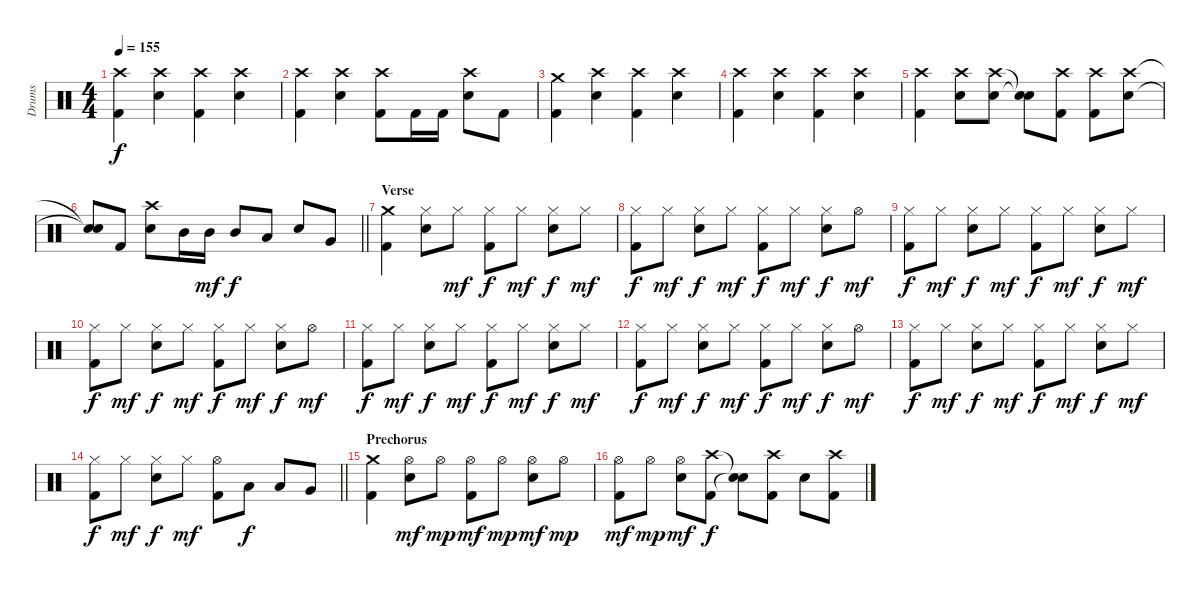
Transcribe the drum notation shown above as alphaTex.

\track ("Drums" "Drums") {instrument percussion}
\staff {score}
\articulation defaults
\ts (4 4)
\tempo 155
\clef neutral
\ks c
("Kick (hit) 2" "Crash high (hit)").4{dy f} ("Crash high (hit)" "Electric Snare (hit)").4 ("Kick (hit) 2" "Crash high (hit)").4 ("Crash high (hit)" "Electric Snare (hit)").4 |
("Kick (hit) 2" "Crash high (hit)").4 ("Crash high (hit)" "Electric Snare (hit)").4 ("Kick (hit) 2" "Crash high (hit)").8 "Kick (hit) 2".16 "Kick (hit) 2".16 ("Crash high (hit)" "Electric Snare (hit)").8 "Kick (hit) 2".8 |
("Kick (hit) 2" "Crash medium (hit)").4 ("Crash high (hit)" "Electric Snare (hit)").4 ("Kick (hit) 2" "Crash high (hit)").4 ("Crash high (hit)" "Electric Snare (hit)").4 |
("Kick (hit) 2" "Crash high (hit)").4 ("Crash high (hit)" "Electric Snare (hit)").4 ("Kick (hit) 2" "Crash high (hit)").4 ("Crash high (hit)" "Electric Snare (hit)").4 |
("Kick (hit) 2" "Crash high (hit)").4 ("Crash high (hit)" "Electric Snare (hit)").8 ("Crash high (hit)" "Electric Snare (hit)").8 ("Snare (hit)"{t} "Snare (hit)"{t}).8 ("Kick (hit) 2" "Crash high (hit)").8 ("Kick (hit) 2" "Crash high (hit)").8 ("Crash high (hit)" "Electric Snare (hit)").8 |
\barLineRight lightlight
("Snare (hit)"{t} "Snare (hit)"{t}).8 "Kick (hit) 2".8 ("Crash high (hit)" "Electric Snare (hit)").8 "Mid Tom (hit)".16 "Mid Tom (hit)".16{dy mf} "Mid Tom (hit)".8{dy f} "Low Tom (hit)".8 "Electric Snare (hit)".8 "Very Low Tom (hit)".8 |
\section ("" "Verse")
("Kick (hit) 2" "Crash medium (hit)").4 ("Hi-Hat (closed)" "Electric Snare (hit)").8 "Hi-Hat (closed)".8{dy mf} ("Kick (hit) 2" "Hi-Hat (closed)").8{dy f} "Hi-Hat (closed)".8{dy mf} ("Hi-Hat (closed)" "Electric Snare (hit)").8{dy f} "Hi-Hat (closed)".8{dy mf} |
("Kick (hit) 2" "Hi-Hat (closed)").8{dy f} "Hi-Hat (closed)".8{dy mf} ("Hi-Hat (closed)" "Electric Snare (hit)").8{dy f} "Hi-Hat (closed)".8{dy mf} ("Kick (hit) 2" "Hi-Hat (closed)").8{dy f} "Hi-Hat (closed)".8{dy mf} ("Hi-Hat (closed)" "Electric Snare (hit)").8{dy f} "Hi-Hat (open)".8{dy mf} |
("Kick (hit) 2" "Hi-Hat (closed)").8{dy f} "Hi-Hat (closed)".8{dy mf} ("Hi-Hat (closed)" "Electric Snare (hit)").8{dy f} "Hi-Hat (closed)".8{dy mf} ("Kick (hit) 2" "Hi-Hat (closed)").8{dy f} "Hi-Hat (closed)".8{dy mf} ("Hi-Hat (closed)" "Electric Snare (hit)").8{dy f} "Hi-Hat (closed)".8{dy mf} |
("Kick (hit) 2" "Hi-Hat (closed)").8{dy f} "Hi-Hat (closed)".8{dy mf} ("Hi-Hat (closed)" "Electric Snare (hit)").8{dy f} "Hi-Hat (closed)".8{dy mf} ("Kick (hit) 2" "Hi-Hat (closed)").8{dy f} "Hi-Hat (closed)".8{dy mf} ("Hi-Hat (closed)" "Electric Snare (hit)").8{dy f} "Hi-Hat (open)".8{dy mf} |
("Kick (hit) 2" "Hi-Hat (closed)").8{dy f} "Hi-Hat (closed)".8{dy mf} ("Hi-Hat (closed)" "Electric Snare (hit)").8{dy f} "Hi-Hat (closed)".8{dy mf} ("Kick (hit) 2" "Hi-Hat (closed)").8{dy f} "Hi-Hat (closed)".8{dy mf} ("Hi-Hat (closed)" "Electric Snare (hit)").8{dy f} "Hi-Hat (closed)".8{dy mf} |
("Kick (hit) 2" "Hi-Hat (closed)").8{dy f} "Hi-Hat (closed)".8{dy mf} ("Hi-Hat (closed)" "Electric Snare (hit)").8{dy f} "Hi-Hat (closed)".8{dy mf} ("Kick (hit) 2" "Hi-Hat (closed)").8{dy f} "Hi-Hat (closed)".8{dy mf} ("Hi-Hat (closed)" "Electric Snare (hit)").8{dy f} "Hi-Hat (open)".8{dy mf} |
("Kick (hit) 2" "Hi-Hat (closed)").8{dy f} "Hi-Hat (closed)".8{dy mf} ("Hi-Hat (closed)" "Electric Snare (hit)").8{dy f} "Hi-Hat (closed)".8{dy mf} ("Kick (hit) 2" "Hi-Hat (closed)").8{dy f} "Hi-Hat (closed)".8{dy mf} ("Hi-Hat (closed)" "Electric Snare (hit)").8{dy f} "Hi-Hat (closed)".8{dy mf} |
\barLineRight lightlight
("Kick (hit) 2" "Hi-Hat (closed)").8{dy f} "Hi-Hat (closed)".8{dy mf} ("Hi-Hat (closed)" "Electric Snare (hit)").8{dy f} "Hi-Hat (closed)".8{dy mf} ("Kick (hit) 2" "Hi-Hat (open)").8 "Low Tom (hit)".8{dy f} "Low Tom (hit)".8 "Very Low Tom (hit)".8 |
\section ("" "Prechorus")
("Kick (hit) 2" "Crash medium (hit)").4 ("Hi-Hat (open)" "Electric Snare (hit)").8{dy mf} "Hi-Hat (open)".8{dy mp} ("Kick (hit) 2" "Hi-Hat (open)").8{dy mf} "Hi-Hat (open)".8{dy mp} ("Hi-Hat (open)" "Electric Snare (hit)").8{dy mf} "Hi-Hat (open)".8{dy mp} |
("Kick (hit) 2" "Hi-Hat (open)").8{dy mf} "Hi-Hat (open)".8{dy mp} ("Hi-Hat (open)" "Electric Snare (hit)").8{dy mf} ("Kick (hit) 2" "Crash high (hit)").8{dy f} ("Snare (hit)"{t} "Snare (hit)"{t}).8 ("Kick (hit) 2" "Crash high (hit)").8 "Electric Snare (hit)".8 ("Kick (hit) 2" "Crash high (hit)").8
